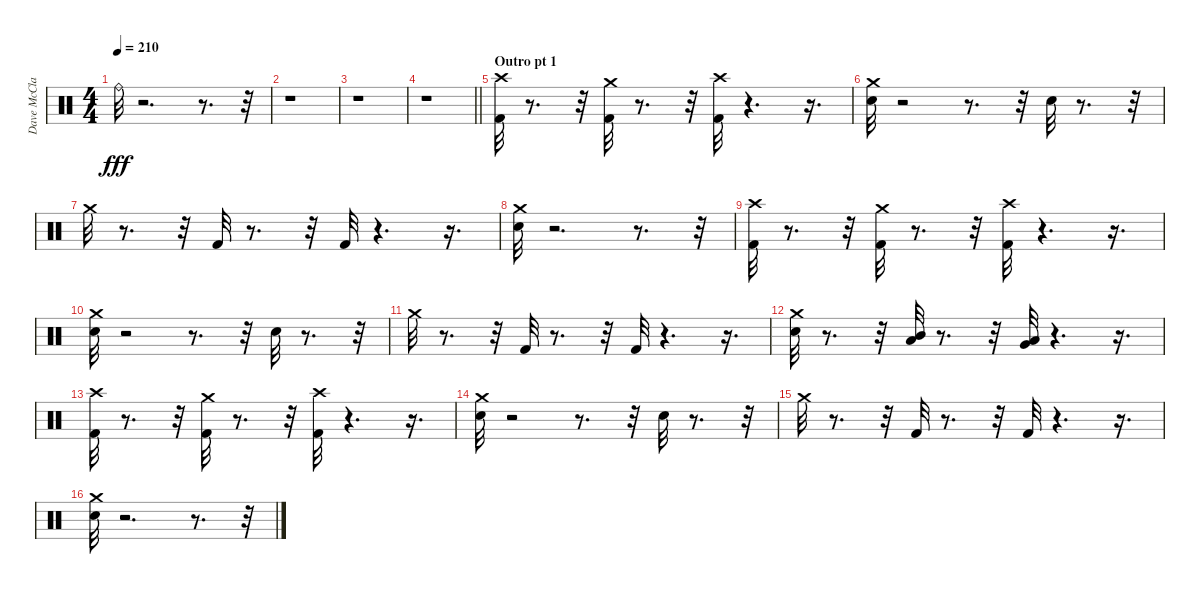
\track ("Dave McClain" "Dave McCla") {instrument percussion}
\staff {score}
\articulation defaults
\ts (4 4)
\tempo 210
\clef neutral
\ks c "Ride (bell)".32{dy fff}
r.2{d} r.8{d} r.32 |
r.1 |
r.1 |
\barLineRight lightlight
r.1 |
\section ("" "Outro pt 1")
("Crash high (hit)" "Kick (hit) 2").32 r.8{d} r.32 ("Crash medium (hit)" "Kick (hit) 2").32 r.8{d} r.32 ("Kick (hit) 2" "Crash high (hit)").32 r.4{d} r.16{d} |
("Crash medium (hit)" "Snare (hit) 2").32 r.2 r.8{d} r.32 "Snare (hit) 2".32 r.8{d} r.32 |
"Crash medium (hit)".32 r.8{d} r.32 "Kick (hit) 2".32 r.8{d} r.32 "Kick (hit) 2".32 r.4{d} r.16{d} |
("Snare (hit) 2" "Crash medium (hit)").32 r.2{d} r.8{d} r.32 |
("Crash high (hit)" "Kick (hit) 2").32 r.8{d} r.32 ("Crash medium (hit)" "Kick (hit) 2").32 r.8{d} r.32 ("Kick (hit) 2" "Crash high (hit)").32 r.4{d} r.16{d} |
("Crash medium (hit)" "Snare (hit) 2").32 r.2 r.8{d} r.32 "Snare (hit) 2".32 r.8{d} r.32 |
"Crash medium (hit)".32 r.8{d} r.32 "Kick (hit) 2".32 r.8{d} r.32 "Kick (hit) 2".32 r.4{d} r.16{d} |
("Snare (hit) 2" "Crash medium (hit)").32 r.8{d} r.32 ("Mid Tom (hit)" "Low Tom (hit)").32 r.8{d} r.32 ("Low Tom (hit)" "Very Low Tom (hit)").32 r.4{d} r.16{d} |
("Crash high (hit)" "Kick (hit) 2").32 r.8{d} r.32 ("Crash medium (hit)" "Kick (hit) 2").32 r.8{d} r.32 ("Kick (hit) 2" "Crash high (hit)").32 r.4{d} r.16{d} |
("Crash medium (hit)" "Snare (hit) 2").32 r.2 r.8{d} r.32 "Snare (hit) 2".32 r.8{d} r.32 |
"Crash medium (hit)".32 r.8{d} r.32 "Kick (hit) 2".32 r.8{d} r.32 "Kick (hit) 2".32 r.4{d} r.16{d} |
("Snare (hit) 2" "Crash medium (hit)").32 r.2{d} r.8{d} r.32
